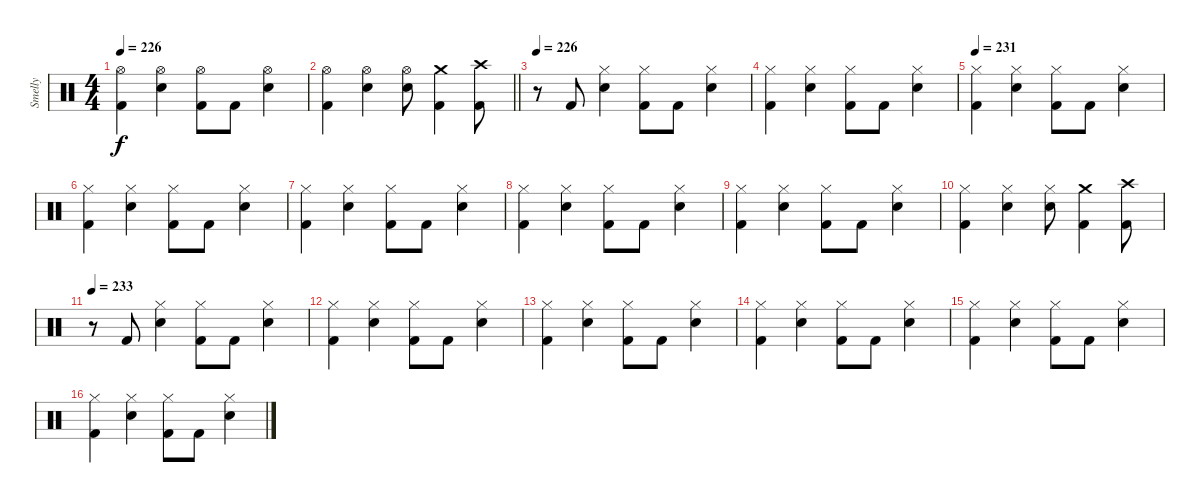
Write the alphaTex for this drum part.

\track ("Smelly" "Smelly") {instrument percussion}
\staff {score}
\articulation defaults
\ts (4 4)
\tempo 226
\clef neutral
\ks c
("Hi-Hat (open)" "Kick (hit) 2").4{dy f} ("Hi-Hat (open)" "Electric Snare (hit)").4 ("Hi-Hat (open)" "Kick (hit) 2").8 "Kick (hit) 2".8 ("Hi-Hat (open)" "Electric Snare (hit)").4 |
\barLineRight lightlight
("Hi-Hat (open)" "Kick (hit) 2").4 ("Hi-Hat (open)" "Electric Snare (hit)").4 ("Hi-Hat (open)" "Electric Snare (hit)").8 ("Crash medium (hit)" "Kick (hit) 2").4 ("Crash high (hit)" "Kick (hit) 2").8 |
\section ("" "")
\tempo 226
r.8 "Kick (hit) 2".8 ("Hi-Hat (closed)" "Electric Snare (hit)").4 ("Hi-Hat (closed)" "Kick (hit) 2").8 "Kick (hit) 2".8 ("Hi-Hat (closed)" "Electric Snare (hit)").4 |
("Hi-Hat (closed)" "Kick (hit) 2").4 ("Hi-Hat (closed)" "Electric Snare (hit)").4 ("Hi-Hat (closed)" "Kick (hit) 2").8 "Kick (hit) 2".8 ("Hi-Hat (closed)" "Electric Snare (hit)").4 |
\tempo 231
("Hi-Hat (closed)" "Kick (hit) 2").4 ("Hi-Hat (closed)" "Electric Snare (hit)").4 ("Hi-Hat (closed)" "Kick (hit) 2").8 "Kick (hit) 2".8 ("Hi-Hat (closed)" "Electric Snare (hit)").4 |
("Hi-Hat (closed)" "Kick (hit) 2").4 ("Hi-Hat (closed)" "Electric Snare (hit)").4 ("Hi-Hat (closed)" "Kick (hit) 2").8 "Kick (hit) 2".8 ("Hi-Hat (closed)" "Electric Snare (hit)").4 |
("Hi-Hat (closed)" "Kick (hit) 2").4 ("Hi-Hat (closed)" "Electric Snare (hit)").4 ("Hi-Hat (closed)" "Kick (hit) 2").8 "Kick (hit) 2".8 ("Hi-Hat (closed)" "Electric Snare (hit)").4 |
("Hi-Hat (closed)" "Kick (hit) 2").4 ("Hi-Hat (closed)" "Electric Snare (hit)").4 ("Hi-Hat (closed)" "Kick (hit) 2").8 "Kick (hit) 2".8 ("Hi-Hat (closed)" "Electric Snare (hit)").4 |
("Hi-Hat (closed)" "Kick (hit) 2").4 ("Hi-Hat (closed)" "Electric Snare (hit)").4 ("Hi-Hat (closed)" "Kick (hit) 2").8 "Kick (hit) 2".8 ("Hi-Hat (closed)" "Electric Snare (hit)").4 |
("Hi-Hat (closed)" "Kick (hit) 2").4 ("Hi-Hat (closed)" "Electric Snare (hit)").4 ("Hi-Hat (closed)" "Electric Snare (hit)").8 ("Crash medium (hit)" "Kick (hit) 2").4 ("Crash high (hit)" "Kick (hit) 2").8 |
\tempo 233
r.8 "Kick (hit) 2".8 ("Hi-Hat (closed)" "Electric Snare (hit)").4 ("Hi-Hat (closed)" "Kick (hit) 2").8 "Kick (hit) 2".8 ("Hi-Hat (closed)" "Electric Snare (hit)").4 |
("Hi-Hat (closed)" "Kick (hit) 2").4 ("Hi-Hat (closed)" "Electric Snare (hit)").4 ("Hi-Hat (closed)" "Kick (hit) 2").8 "Kick (hit) 2".8 ("Hi-Hat (closed)" "Electric Snare (hit)").4 |
("Hi-Hat (closed)" "Kick (hit) 2").4 ("Hi-Hat (closed)" "Electric Snare (hit)").4 ("Hi-Hat (closed)" "Kick (hit) 2").8 "Kick (hit) 2".8 ("Hi-Hat (closed)" "Electric Snare (hit)").4 |
("Hi-Hat (closed)" "Kick (hit) 2").4 ("Hi-Hat (closed)" "Electric Snare (hit)").4 ("Hi-Hat (closed)" "Kick (hit) 2").8 "Kick (hit) 2".8 ("Hi-Hat (closed)" "Electric Snare (hit)").4 |
("Hi-Hat (closed)" "Kick (hit) 2").4 ("Hi-Hat (closed)" "Electric Snare (hit)").4 ("Hi-Hat (closed)" "Kick (hit) 2").8 "Kick (hit) 2".8 ("Hi-Hat (closed)" "Electric Snare (hit)").4 |
("Hi-Hat (closed)" "Kick (hit) 2").4 ("Hi-Hat (closed)" "Electric Snare (hit)").4 ("Hi-Hat (closed)" "Kick (hit) 2").8 "Kick (hit) 2".8 ("Hi-Hat (closed)" "Electric Snare (hit)").4
